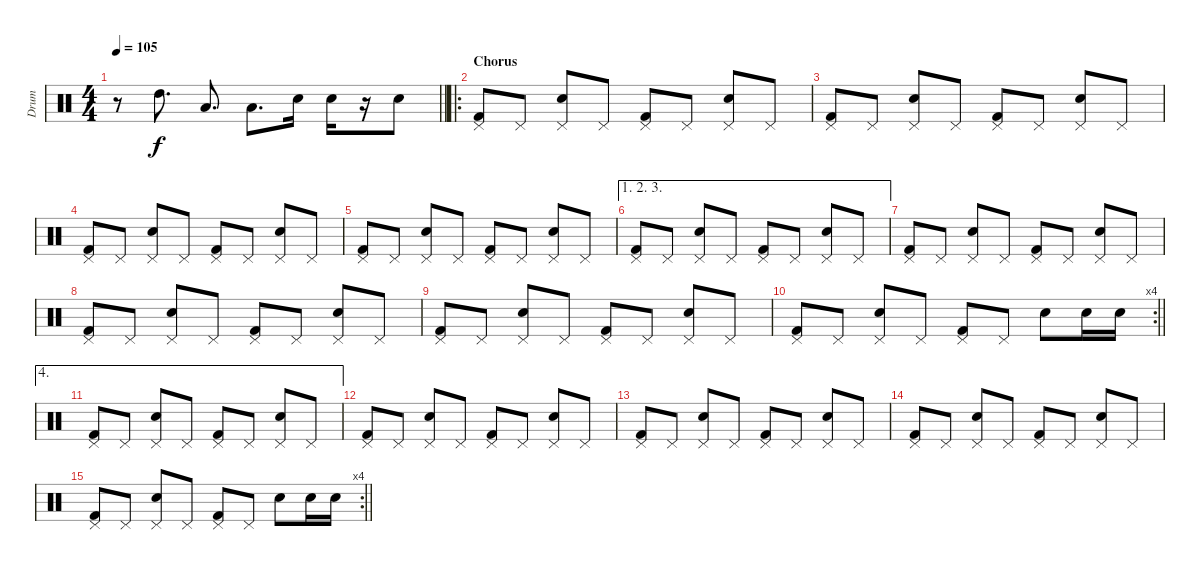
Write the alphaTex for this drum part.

\track ("Drum" "Drum") {instrument percussion}
\staff {score}
\articulation defaults
\ts (4 4)
\tempo 105
\clef neutral
\barLineRight lightlight
\ks c
r.8{dy f} "High Tom (hit)".8{d} "Low Tom (hit)".8{d} "Low Floor Tom (hit)".8{d} "Electric Snare (hit)".16 "Electric Snare (hit)".16 r.16 "Electric Snare (hit)".8 |
\ro
\section ("" "Chorus")
("Kick (hit) 2" "Pedal Hi-Hat (hit)").8 "Pedal Hi-Hat (hit)".8 ("Electric Snare (hit)" "Pedal Hi-Hat (hit)").8 "Pedal Hi-Hat (hit)".8 ("Kick (hit) 2" "Pedal Hi-Hat (hit)").8 "Pedal Hi-Hat (hit)".8 ("Electric Snare (hit)" "Pedal Hi-Hat (hit)").8 "Pedal Hi-Hat (hit)".8 |
("Kick (hit) 2" "Pedal Hi-Hat (hit)").8 "Pedal Hi-Hat (hit)".8 ("Electric Snare (hit)" "Pedal Hi-Hat (hit)").8 "Pedal Hi-Hat (hit)".8 ("Kick (hit) 2" "Pedal Hi-Hat (hit)").8 "Pedal Hi-Hat (hit)".8 ("Electric Snare (hit)" "Pedal Hi-Hat (hit)").8 "Pedal Hi-Hat (hit)".8 |
("Kick (hit) 2" "Pedal Hi-Hat (hit)").8 "Pedal Hi-Hat (hit)".8 ("Electric Snare (hit)" "Pedal Hi-Hat (hit)").8 "Pedal Hi-Hat (hit)".8 ("Kick (hit) 2" "Pedal Hi-Hat (hit)").8 "Pedal Hi-Hat (hit)".8 ("Electric Snare (hit)" "Pedal Hi-Hat (hit)").8 "Pedal Hi-Hat (hit)".8 |
("Kick (hit) 2" "Pedal Hi-Hat (hit)").8 "Pedal Hi-Hat (hit)".8 ("Electric Snare (hit)" "Pedal Hi-Hat (hit)").8 "Pedal Hi-Hat (hit)".8 ("Kick (hit) 2" "Pedal Hi-Hat (hit)").8 "Pedal Hi-Hat (hit)".8 ("Electric Snare (hit)" "Pedal Hi-Hat (hit)").8 "Pedal Hi-Hat (hit)".8 |
\ae (1 2 3)
("Kick (hit) 2" "Pedal Hi-Hat (hit)").8 "Pedal Hi-Hat (hit)".8 ("Electric Snare (hit)" "Pedal Hi-Hat (hit)").8 "Pedal Hi-Hat (hit)".8 ("Kick (hit) 2" "Pedal Hi-Hat (hit)").8 "Pedal Hi-Hat (hit)".8 ("Electric Snare (hit)" "Pedal Hi-Hat (hit)").8 "Pedal Hi-Hat (hit)".8 |
("Kick (hit) 2" "Pedal Hi-Hat (hit)").8 "Pedal Hi-Hat (hit)".8 ("Electric Snare (hit)" "Pedal Hi-Hat (hit)").8 "Pedal Hi-Hat (hit)".8 ("Kick (hit) 2" "Pedal Hi-Hat (hit)").8 "Pedal Hi-Hat (hit)".8 ("Electric Snare (hit)" "Pedal Hi-Hat (hit)").8 "Pedal Hi-Hat (hit)".8 |
("Kick (hit) 2" "Pedal Hi-Hat (hit)").8 "Pedal Hi-Hat (hit)".8 ("Electric Snare (hit)" "Pedal Hi-Hat (hit)").8 "Pedal Hi-Hat (hit)".8 ("Kick (hit) 2" "Pedal Hi-Hat (hit)").8 "Pedal Hi-Hat (hit)".8 ("Electric Snare (hit)" "Pedal Hi-Hat (hit)").8 "Pedal Hi-Hat (hit)".8 |
("Kick (hit) 2" "Pedal Hi-Hat (hit)").8 "Pedal Hi-Hat (hit)".8 ("Electric Snare (hit)" "Pedal Hi-Hat (hit)").8 "Pedal Hi-Hat (hit)".8 ("Kick (hit) 2" "Pedal Hi-Hat (hit)").8 "Pedal Hi-Hat (hit)".8 ("Electric Snare (hit)" "Pedal Hi-Hat (hit)").8 "Pedal Hi-Hat (hit)".8 |
\rc 4
\barLineRight lightlight
("Kick (hit) 2" "Pedal Hi-Hat (hit)").8 "Pedal Hi-Hat (hit)".8 ("Electric Snare (hit)" "Pedal Hi-Hat (hit)").8 "Pedal Hi-Hat (hit)".8 ("Kick (hit) 2" "Pedal Hi-Hat (hit)").8 "Pedal Hi-Hat (hit)".8 "Electric Snare (hit)".8 "Electric Snare (hit)".16 "Electric Snare (hit)".16 |
\ae 4
("Kick (hit) 2" "Pedal Hi-Hat (hit)").8 "Pedal Hi-Hat (hit)".8 ("Electric Snare (hit)" "Pedal Hi-Hat (hit)").8 "Pedal Hi-Hat (hit)".8 ("Kick (hit) 2" "Pedal Hi-Hat (hit)").8 "Pedal Hi-Hat (hit)".8 ("Electric Snare (hit)" "Pedal Hi-Hat (hit)").8 "Pedal Hi-Hat (hit)".8 |
("Kick (hit) 2" "Pedal Hi-Hat (hit)").8 "Pedal Hi-Hat (hit)".8 ("Electric Snare (hit)" "Pedal Hi-Hat (hit)").8 "Pedal Hi-Hat (hit)".8 ("Kick (hit) 2" "Pedal Hi-Hat (hit)").8 "Pedal Hi-Hat (hit)".8 ("Electric Snare (hit)" "Pedal Hi-Hat (hit)").8 "Pedal Hi-Hat (hit)".8 |
("Kick (hit) 2" "Pedal Hi-Hat (hit)").8 "Pedal Hi-Hat (hit)".8 ("Electric Snare (hit)" "Pedal Hi-Hat (hit)").8 "Pedal Hi-Hat (hit)".8 ("Kick (hit) 2" "Pedal Hi-Hat (hit)").8 "Pedal Hi-Hat (hit)".8 ("Electric Snare (hit)" "Pedal Hi-Hat (hit)").8 "Pedal Hi-Hat (hit)".8 |
("Kick (hit) 2" "Pedal Hi-Hat (hit)").8 "Pedal Hi-Hat (hit)".8 ("Electric Snare (hit)" "Pedal Hi-Hat (hit)").8 "Pedal Hi-Hat (hit)".8 ("Kick (hit) 2" "Pedal Hi-Hat (hit)").8 "Pedal Hi-Hat (hit)".8 ("Electric Snare (hit)" "Pedal Hi-Hat (hit)").8 "Pedal Hi-Hat (hit)".8 |
\rc 4
\barLineRight lightlight
("Kick (hit) 2" "Pedal Hi-Hat (hit)").8 "Pedal Hi-Hat (hit)".8 ("Electric Snare (hit)" "Pedal Hi-Hat (hit)").8 "Pedal Hi-Hat (hit)".8 ("Kick (hit) 2" "Pedal Hi-Hat (hit)").8 "Pedal Hi-Hat (hit)".8 "Electric Snare (hit)".8 "Electric Snare (hit)".16 "Electric Snare (hit)".16
